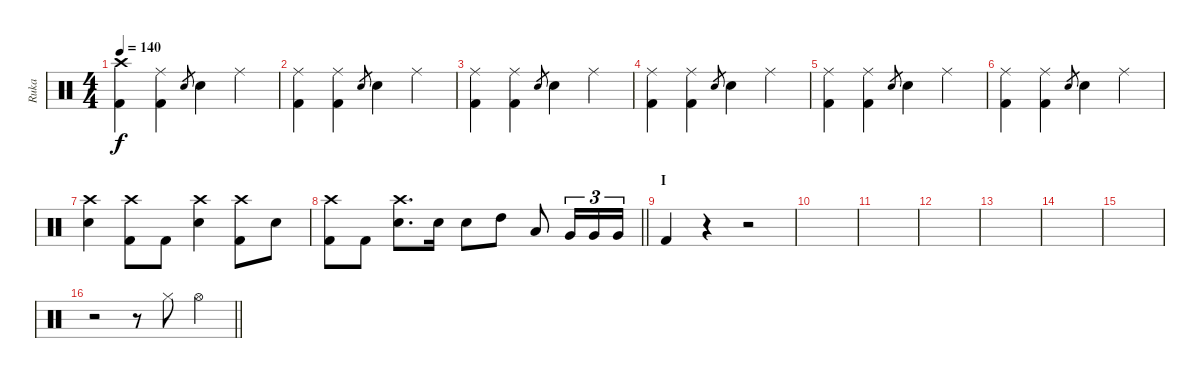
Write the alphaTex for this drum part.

\track ("Ruka" "Ruka") {instrument percussion}
\staff {score}
\articulation defaults
\ts (4 4)
\tempo 140
\clef neutral
\ks c
("Crash high (hit)" "Kick (hit) 2").4{dy f} ("Ride (middle)" "Kick (hit) 2").4 "Snare (hit) 2".8{gr} "Snare (hit) 2".4 "Ride (middle)".4 |
("Ride (middle)" "Kick (hit) 2").4 ("Ride (middle)" "Kick (hit) 2").4 "Snare (hit) 2".8{gr} "Snare (hit) 2".4 "Ride (middle)".4 |
("Ride (middle)" "Kick (hit) 2").4 ("Ride (middle)" "Kick (hit) 2").4 "Snare (hit) 2".8{gr} "Snare (hit) 2".4 "Ride (middle)".4 |
("Ride (middle)" "Kick (hit) 2").4 ("Ride (middle)" "Kick (hit) 2").4 "Snare (hit) 2".8{gr} "Snare (hit) 2".4 "Ride (middle)".4 |
("Ride (middle)" "Kick (hit) 2").4 ("Ride (middle)" "Kick (hit) 2").4 "Snare (hit) 2".8{gr} "Snare (hit) 2".4 "Ride (middle)".4 |
("Ride (middle)" "Kick (hit) 2").4 ("Ride (middle)" "Kick (hit) 2").4 "Snare (hit) 2".8{gr} "Snare (hit) 2".4 "Ride (middle)".4 |
("Crash high (hit)" "Snare (hit) 2").4 ("Crash high (hit)" "Kick (hit) 2").8 "Kick (hit) 2".8 ("Crash high (hit)" "Snare (hit) 2").4 ("Crash high (hit)" "Kick (hit) 2").8 "Snare (hit) 2".8 |
\barLineRight lightlight
("Crash high (hit)" "Kick (hit) 2").8 "Kick (hit) 2".8 ("Crash high (hit)" "Snare (hit) 2").8{d} "Snare (hit) 2".16 "Snare (hit) 2".8 "High Tom (hit)".8 "Low Tom (hit)".8 "Very Low Tom (hit)".16{tu (3 2)} "Very Low Tom (hit)".16{tu (3 2)} "Very Low Tom (hit)".16{tu (3 2)} |
\section ("" "I")
"Kick (hit) 2".4 r.4 r.2 |
|
|
|
|
|
|
\barLineRight lightlight
r.2 r.8 "Hi-Hat (closed)".8 "Hi-Hat (open)".4
